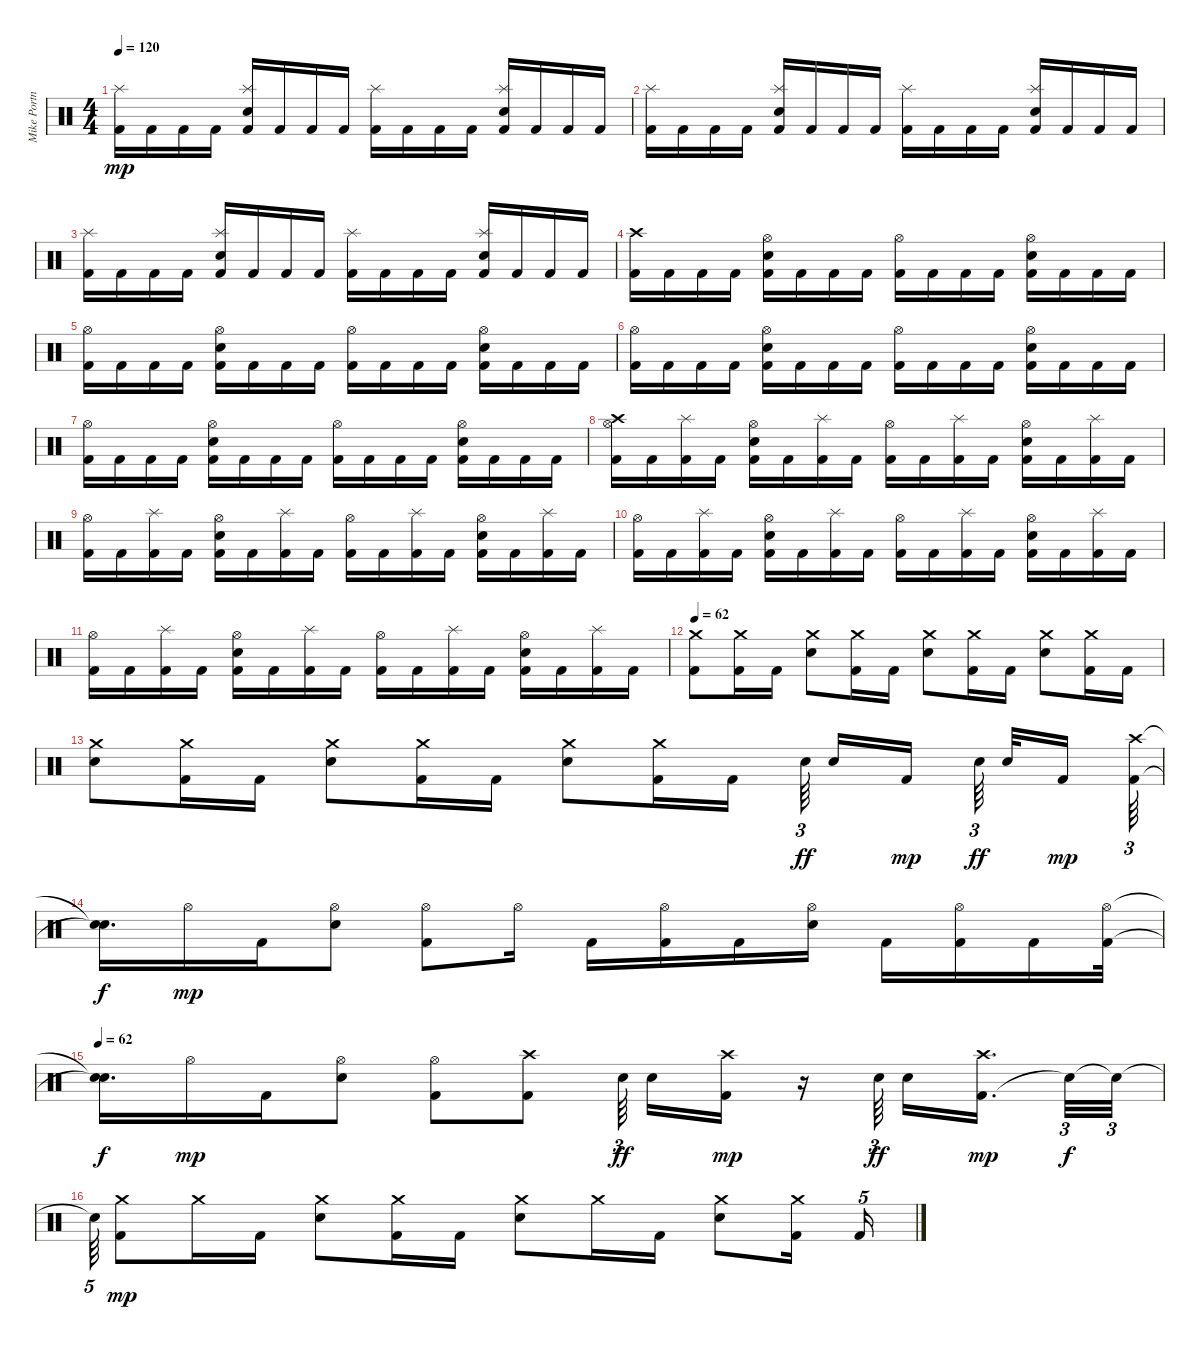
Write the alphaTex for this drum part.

\track ("Mike Portnoy" "Mike Portn") {instrument percussion}
\staff {score}
\articulation defaults
\ts (4 4)
\tempo 120
\clef neutral
\ks c
("Kick (hit) 2" "Splash (hit)").16{dy mp} "Kick (hit) 2".16 "Kick (hit) 2".16 "Kick (hit) 2".16 ("Kick (hit) 2" "Electric Snare (hit)" "Splash (hit)").16 "Kick (hit) 2".16 "Kick (hit) 2".16 "Kick (hit) 2".16 ("Kick (hit) 2" "Splash (hit)").16 "Kick (hit) 2".16 "Kick (hit) 2".16 "Kick (hit) 2".16 ("Kick (hit) 2" "Electric Snare (hit)" "Splash (hit)").16 "Kick (hit) 2".16 "Kick (hit) 2".16 "Kick (hit) 2".16 |
("Kick (hit) 2" "Splash (hit)").16 "Kick (hit) 2".16 "Kick (hit) 2".16 "Kick (hit) 2".16 ("Kick (hit) 2" "Electric Snare (hit)" "Splash (hit)").16 "Kick (hit) 2".16 "Kick (hit) 2".16 "Kick (hit) 2".16 ("Kick (hit) 2" "Splash (hit)").16 "Kick (hit) 2".16 "Kick (hit) 2".16 "Kick (hit) 2".16 ("Kick (hit) 2" "Electric Snare (hit)" "Splash (hit)").16 "Kick (hit) 2".16 "Kick (hit) 2".16 "Kick (hit) 2".16 |
("Kick (hit) 2" "Splash (hit)").16 "Kick (hit) 2".16 "Kick (hit) 2".16 "Kick (hit) 2".16 ("Kick (hit) 2" "Electric Snare (hit)" "Splash (hit)").16 "Kick (hit) 2".16 "Kick (hit) 2".16 "Kick (hit) 2".16 ("Kick (hit) 2" "Splash (hit)").16 "Kick (hit) 2".16 "Kick (hit) 2".16 "Kick (hit) 2".16 ("Kick (hit) 2" "Electric Snare (hit)" "Splash (hit)").16 "Kick (hit) 2".16 "Kick (hit) 2".16 "Kick (hit) 2".16 |
("Kick (hit) 2" "Crash high (hit)").16 "Kick (hit) 2".16 "Kick (hit) 2".16 "Kick (hit) 2".16 ("Kick (hit) 2" "Electric Snare (hit)" "Hi-Hat (open)").16 "Kick (hit) 2".16 "Kick (hit) 2".16 "Kick (hit) 2".16 ("Kick (hit) 2" "Hi-Hat (open)").16 "Kick (hit) 2".16 "Kick (hit) 2".16 "Kick (hit) 2".16 ("Kick (hit) 2" "Electric Snare (hit)" "Hi-Hat (open)").16 "Kick (hit) 2".16 "Kick (hit) 2".16 "Kick (hit) 2".16 |
("Kick (hit) 2" "Hi-Hat (open)").16 "Kick (hit) 2".16 "Kick (hit) 2".16 "Kick (hit) 2".16 ("Kick (hit) 2" "Electric Snare (hit)" "Hi-Hat (open)").16 "Kick (hit) 2".16 "Kick (hit) 2".16 "Kick (hit) 2".16 ("Kick (hit) 2" "Hi-Hat (open)").16 "Kick (hit) 2".16 "Kick (hit) 2".16 "Kick (hit) 2".16 ("Kick (hit) 2" "Electric Snare (hit)" "Hi-Hat (open)").16 "Kick (hit) 2".16 "Kick (hit) 2".16 "Kick (hit) 2".16 |
("Kick (hit) 2" "Hi-Hat (open)").16 "Kick (hit) 2".16 "Kick (hit) 2".16 "Kick (hit) 2".16 ("Kick (hit) 2" "Electric Snare (hit)" "Hi-Hat (open)").16 "Kick (hit) 2".16 "Kick (hit) 2".16 "Kick (hit) 2".16 ("Kick (hit) 2" "Hi-Hat (open)").16 "Kick (hit) 2".16 "Kick (hit) 2".16 "Kick (hit) 2".16 ("Kick (hit) 2" "Electric Snare (hit)" "Hi-Hat (open)").16 "Kick (hit) 2".16 "Kick (hit) 2".16 "Kick (hit) 2".16 |
("Kick (hit) 2" "Hi-Hat (open)").16 "Kick (hit) 2".16 "Kick (hit) 2".16 "Kick (hit) 2".16 ("Kick (hit) 2" "Electric Snare (hit)" "Hi-Hat (open)").16 "Kick (hit) 2".16 "Kick (hit) 2".16 "Kick (hit) 2".16 ("Kick (hit) 2" "Hi-Hat (open)").16 "Kick (hit) 2".16 "Kick (hit) 2".16 "Kick (hit) 2".16 ("Kick (hit) 2" "Electric Snare (hit)" "Hi-Hat (open)").16 "Kick (hit) 2".16 "Kick (hit) 2".16 "Kick (hit) 2".16 |
("Kick (hit) 2" "Hi-Hat (open)" "Crash high (hit)").16 "Kick (hit) 2".16 ("Kick (hit) 2" "Splash (hit)").16 "Kick (hit) 2".16 ("Kick (hit) 2" "Electric Snare (hit)" "Hi-Hat (open)").16 "Kick (hit) 2".16 ("Kick (hit) 2" "Splash (hit)").16 "Kick (hit) 2".16 ("Kick (hit) 2" "Hi-Hat (open)").16 "Kick (hit) 2".16 ("Kick (hit) 2" "Splash (hit)").16 "Kick (hit) 2".16 ("Kick (hit) 2" "Electric Snare (hit)" "Hi-Hat (open)").16 "Kick (hit) 2".16 ("Kick (hit) 2" "Splash (hit)").16 "Kick (hit) 2".16 |
("Kick (hit) 2" "Hi-Hat (open)").16 "Kick (hit) 2".16 ("Kick (hit) 2" "Splash (hit)").16 "Kick (hit) 2".16 ("Kick (hit) 2" "Electric Snare (hit)" "Hi-Hat (open)").16 "Kick (hit) 2".16 ("Kick (hit) 2" "Splash (hit)").16 "Kick (hit) 2".16 ("Kick (hit) 2" "Hi-Hat (open)").16 "Kick (hit) 2".16 ("Kick (hit) 2" "Splash (hit)").16 "Kick (hit) 2".16 ("Kick (hit) 2" "Electric Snare (hit)" "Hi-Hat (open)").16 "Kick (hit) 2".16 ("Kick (hit) 2" "Splash (hit)").16 "Kick (hit) 2".16 |
("Kick (hit) 2" "Hi-Hat (open)").16 "Kick (hit) 2".16 ("Kick (hit) 2" "Splash (hit)").16 "Kick (hit) 2".16 ("Kick (hit) 2" "Electric Snare (hit)" "Hi-Hat (open)").16 "Kick (hit) 2".16 ("Kick (hit) 2" "Splash (hit)").16 "Kick (hit) 2".16 ("Kick (hit) 2" "Hi-Hat (open)").16 "Kick (hit) 2".16 ("Kick (hit) 2" "Splash (hit)").16 "Kick (hit) 2".16 ("Kick (hit) 2" "Electric Snare (hit)" "Hi-Hat (open)").16 "Kick (hit) 2".16 ("Kick (hit) 2" "Splash (hit)").16 "Kick (hit) 2".16 |
("Kick (hit) 2" "Hi-Hat (open)").16 "Kick (hit) 2".16 ("Kick (hit) 2" "Splash (hit)").16 "Kick (hit) 2".16 ("Kick (hit) 2" "Electric Snare (hit)" "Hi-Hat (open)").16 "Kick (hit) 2".16 ("Kick (hit) 2" "Splash (hit)").16 "Kick (hit) 2".16 ("Kick (hit) 2" "Hi-Hat (open)").16 "Kick (hit) 2".16 ("Kick (hit) 2" "Splash (hit)").16 "Kick (hit) 2".16 ("Kick (hit) 2" "Electric Snare (hit)" "Hi-Hat (open)").16 "Kick (hit) 2".16 ("Kick (hit) 2" "Splash (hit)").16 "Kick (hit) 2".16 |
\tempo 62
("Kick (hit) 2" "Crash medium (hit)").8 ("Kick (hit) 2" "Crash medium (hit)").16 "Kick (hit) 2".16 ("Electric Snare (hit)" "Crash medium (hit)").8 ("Kick (hit) 2" "Crash medium (hit)").16 "Kick (hit) 2".16 ("Electric Snare (hit)" "Crash medium (hit)").8 ("Kick (hit) 2" "Crash medium (hit)").16 "Kick (hit) 2".16 ("Electric Snare (hit)" "Crash medium (hit)").8 ("Kick (hit) 2" "Crash medium (hit)").16 "Kick (hit) 2".16 |
("Electric Snare (hit)" "Crash medium (hit)").8 ("Kick (hit) 2" "Crash medium (hit)").16 "Kick (hit) 2".16 ("Electric Snare (hit)" "Crash medium (hit)").8 ("Kick (hit) 2" "Crash medium (hit)").16 "Kick (hit) 2".16 ("Electric Snare (hit)" "Crash medium (hit)").8 ("Kick (hit) 2" "Crash medium (hit)").16 "Kick (hit) 2".16 "Electric Snare (hit)".64{tu (3 2) dy ff} "Electric Snare (hit)".16 "Kick (hit) 2".16{dy mp} "Electric Snare (hit)".64{tu (3 2) dy ff} "Electric Snare (hit)".32 "Kick (hit) 2".16{dy mp} ("Kick (hit) 2" "Crash high (hit)").64{tu (3 2)} |
("Snare (hit)"{t} "Snare (hit)"{t}).16{d dy f} "Hi-Hat (open)".16{dy mp} "Kick (hit) 2".16 ("Electric Snare (hit)" "Hi-Hat (open)").8 ("Kick (hit) 2" "Hi-Hat (open)").8 "Hi-Hat (open)".16 "Kick (hit) 2".16 ("Kick (hit) 2" "Hi-Hat (open)").16 "Kick (hit) 2".16 ("Electric Snare (hit)" "Hi-Hat (open)").16 "Kick (hit) 2".16 ("Kick (hit) 2" "Hi-Hat (open)").16 "Kick (hit) 2".16 ("Kick (hit) 2" "Hi-Hat (open)").32 |
\tempo 62
("Snare (hit)"{t} "Snare (hit)"{t}).16{d dy f} "Hi-Hat (open)".16{dy mp} "Kick (hit) 2".16 ("Electric Snare (hit)" "Hi-Hat (open)").8 ("Kick (hit) 2" "Hi-Hat (open)").8 ("Kick (hit) 2" "Crash high (hit)").8 "Electric Snare (hit)".64{tu (3 2) dy ff} "Electric Snare (hit)".16 ("Kick (hit) 2" "Crash high (hit)").16{dy mp} r.16 "Electric Snare (hit)".64{tu (3 2) dy ff} "Electric Snare (hit)".16 ("Kick (hit) 2" "Crash high (hit)").16{d dy mp} "Snare (hit)"{t}.32{tu (3 2) dy f} "Snare (hit)"{t}.32{tu (3 2)} |
"Snare (hit)"{t}.64{tu (5 4)} ("Kick (hit) 2" "Crash medium (hit)").8{dy mp} "Crash medium (hit)".16 "Kick (hit) 2".16 ("Electric Snare (hit)" "Crash medium (hit)").8 ("Kick (hit) 2" "Crash medium (hit)").16 "Kick (hit) 2".16 ("Electric Snare (hit)" "Crash medium (hit)").8 "Crash medium (hit)".16 "Kick (hit) 2".16 ("Electric Snare (hit)" "Crash medium (hit)").8 ("Kick (hit) 2" "Crash medium (hit)").16 "Kick (hit) 2".16{tu (5 4)}
